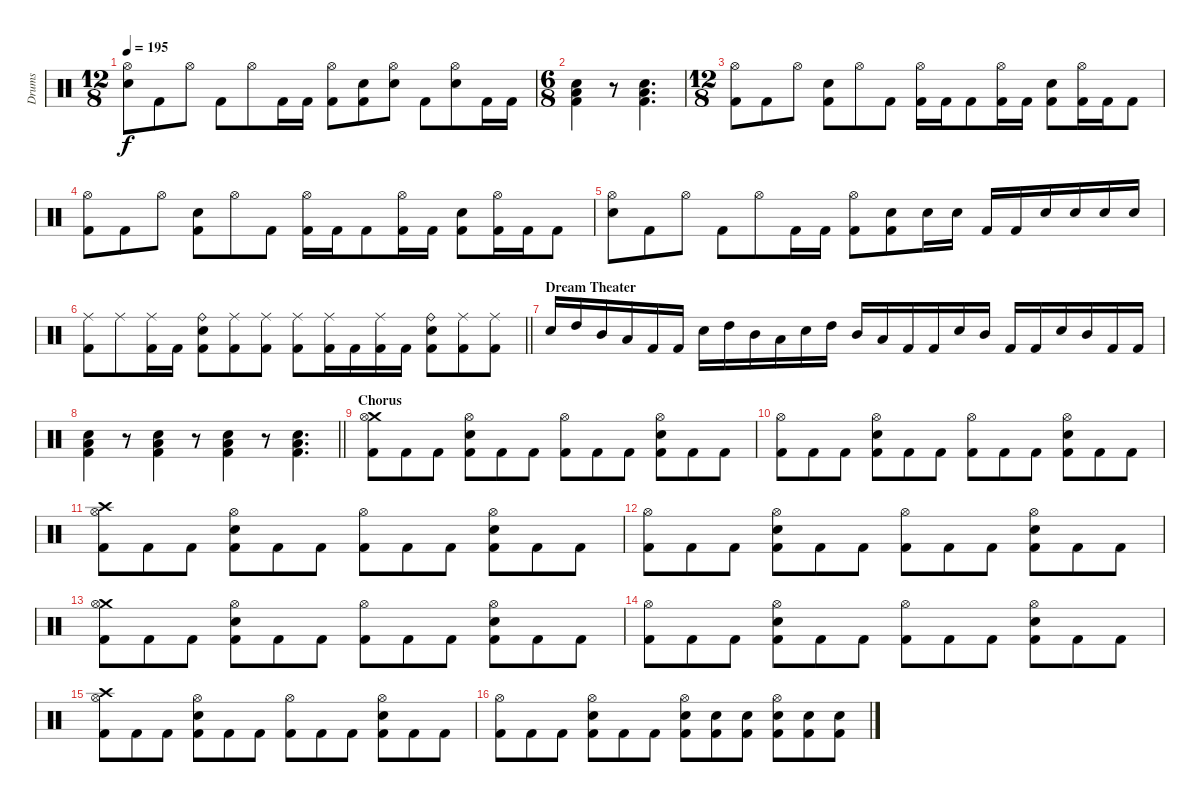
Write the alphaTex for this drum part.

\track ("Drums" "Drums") {instrument percussion}
\staff {score}
\articulation defaults
\ts (12 8)
\tempo 195
\clef neutral
\ks c
("Hi-Hat (open)" "Snare (hit) 2").8{dy f} "Kick (hit) 2".8 "Hi-Hat (open)".8 "Kick (hit) 2".8 "Hi-Hat (open)".8 "Kick (hit) 2".16 "Kick (hit) 2".16 ("Hi-Hat (open)" "Kick (hit) 2").8 ("Snare (hit) 2" "Kick (hit) 2").8 ("Hi-Hat (open)" "Snare (hit) 2").8 "Kick (hit) 2".8 ("Hi-Hat (open)" "Snare (hit) 2").8 "Kick (hit) 2".16 "Kick (hit) 2".16 |
\ts (6 8)
("Snare (hit) 2" "Low Floor Tom (hit)" "Kick (hit) 2").4 r.8 ("Snare (hit) 2" "Low Floor Tom (hit)" "Kick (hit) 2").4{d} |
\ts (12 8)
("Hi-Hat (open)" "Kick (hit) 2").8 "Kick (hit) 2".8 "Hi-Hat (open)".8 ("Snare (hit) 2" "Kick (hit) 2").8 "Hi-Hat (open)".8 "Kick (hit) 2".8 ("Hi-Hat (open)" "Kick (hit) 2").16 "Kick (hit) 2".16 "Kick (hit) 2".8 ("Hi-Hat (open)" "Kick (hit) 2").16 "Kick (hit) 2".16 ("Snare (hit) 2" "Kick (hit) 2").8 ("Hi-Hat (open)" "Kick (hit) 2").16 "Kick (hit) 2".16 "Kick (hit) 2".8 |
("Hi-Hat (open)" "Kick (hit) 2").8 "Kick (hit) 2".8 "Hi-Hat (open)".8 ("Snare (hit) 2" "Kick (hit) 2").8 "Hi-Hat (open)".8 "Kick (hit) 2".8 ("Hi-Hat (open)" "Kick (hit) 2").16 "Kick (hit) 2".16 "Kick (hit) 2".8 ("Hi-Hat (open)" "Kick (hit) 2").16 "Kick (hit) 2".16 ("Snare (hit) 2" "Kick (hit) 2").8 ("Hi-Hat (open)" "Kick (hit) 2").16 "Kick (hit) 2".16 "Kick (hit) 2".8 |
("Hi-Hat (open)" "Snare (hit) 2").8 "Kick (hit) 2".8 "Hi-Hat (open)".8 "Kick (hit) 2".8 "Hi-Hat (open)".8 "Kick (hit) 2".16 "Kick (hit) 2".16 ("Hi-Hat (open)" "Kick (hit) 2").8 ("Snare (hit) 2" "Kick (hit) 2").8 "Snare (hit) 2".16 "Snare (hit) 2".16 "Kick (hit) 2".16 "Kick (hit) 2".16 "Snare (hit) 2".16 "Snare (hit) 2".16 "Snare (hit) 2".16 "Snare (hit) 2".16 |
\barLineRight lightlight
("Ride (middle)" "Kick (hit) 2").8 "Ride (middle)".8 ("Ride (middle)" "Kick (hit) 2").16 "Kick (hit) 2".16 ("Ride (bell)" "Snare (hit) 2" "Kick (hit) 2").8 ("Ride (middle)" "Kick (hit) 2").8 ("Ride (middle)" "Kick (hit) 2").8 ("Ride (middle)" "Kick (hit) 2").8 ("Ride (middle)" "Kick (hit) 2").16 "Kick (hit) 2".16 ("Ride (middle)" "Kick (hit) 2").16 "Kick (hit) 2".16 ("Ride (bell)" "Snare (hit) 2" "Kick (hit) 2").8 ("Ride (middle)" "Kick (hit) 2").8 ("Ride (middle)" "Kick (hit) 2").8 |
\section ("" "Dream Theater")
"Snare (hit) 2".16 "High Tom (hit)".16 "Mid Tom (hit)".16 "Low Tom (hit)".16 "Kick (hit) 2".16 "Kick (hit) 2".16 "Snare (hit) 2".16 "High Tom (hit)".16 "Mid Tom (hit)".16 "Low Tom (hit)".16 "Snare (hit) 2".16 "High Tom (hit)".16 "Mid Tom (hit)".16 "Low Tom (hit)".16 "Kick (hit) 2".16 "Kick (hit) 2".16 "Snare (hit) 2".16 "Mid Tom (hit)".16 "Kick (hit) 2".16 "Kick (hit) 2".16 "Snare (hit) 2".16 "Mid Tom (hit)".16 "Kick (hit) 2".16 "Kick (hit) 2".16 |
\barLineRight lightlight
("Snare (hit) 2" "Low Floor Tom (hit)" "Kick (hit) 2").4 r.8 ("Snare (hit) 2" "Low Floor Tom (hit)" "Kick (hit) 2").4 r.8 ("Snare (hit) 2" "Low Floor Tom (hit)" "Kick (hit) 2").4 r.8 ("Snare (hit) 2" "Low Floor Tom (hit)" "Kick (hit) 2").4{d} |
\section ("" "Chorus")
("Crash medium (hit)" "Hi-Hat (open)" "Kick (hit) 2").8 "Kick (hit) 2".8 "Kick (hit) 2".8 ("Hi-Hat (open)" "Snare (hit) 2" "Kick (hit) 2").8 "Kick (hit) 2".8 "Kick (hit) 2".8 ("Hi-Hat (open)" "Kick (hit) 2").8 "Kick (hit) 2".8 "Kick (hit) 2".8 ("Hi-Hat (open)" "Snare (hit) 2" "Kick (hit) 2").8 "Kick (hit) 2".8 "Kick (hit) 2".8 |
("Hi-Hat (open)" "Kick (hit) 2").8 "Kick (hit) 2".8 "Kick (hit) 2".8 ("Hi-Hat (open)" "Snare (hit) 2" "Kick (hit) 2").8 "Kick (hit) 2".8 "Kick (hit) 2".8 ("Hi-Hat (open)" "Kick (hit) 2").8 "Kick (hit) 2".8 "Kick (hit) 2".8 ("Hi-Hat (open)" "Snare (hit) 2" "Kick (hit) 2").8 "Kick (hit) 2".8 "Kick (hit) 2".8 |
("Crash high (hit)" "Hi-Hat (open)" "Kick (hit) 2").8 "Kick (hit) 2".8 "Kick (hit) 2".8 ("Hi-Hat (open)" "Snare (hit) 2" "Kick (hit) 2").8 "Kick (hit) 2".8 "Kick (hit) 2".8 ("Hi-Hat (open)" "Kick (hit) 2").8 "Kick (hit) 2".8 "Kick (hit) 2".8 ("Hi-Hat (open)" "Snare (hit) 2" "Kick (hit) 2").8 "Kick (hit) 2".8 "Kick (hit) 2".8 |
("Hi-Hat (open)" "Kick (hit) 2").8 "Kick (hit) 2".8 "Kick (hit) 2".8 ("Hi-Hat (open)" "Snare (hit) 2" "Kick (hit) 2").8 "Kick (hit) 2".8 "Kick (hit) 2".8 ("Hi-Hat (open)" "Kick (hit) 2").8 "Kick (hit) 2".8 "Kick (hit) 2".8 ("Hi-Hat (open)" "Snare (hit) 2" "Kick (hit) 2").8 "Kick (hit) 2".8 "Kick (hit) 2".8 |
("Crash medium (hit)" "Hi-Hat (open)" "Kick (hit) 2").8 "Kick (hit) 2".8 "Kick (hit) 2".8 ("Hi-Hat (open)" "Snare (hit) 2" "Kick (hit) 2").8 "Kick (hit) 2".8 "Kick (hit) 2".8 ("Hi-Hat (open)" "Kick (hit) 2").8 "Kick (hit) 2".8 "Kick (hit) 2".8 ("Hi-Hat (open)" "Snare (hit) 2" "Kick (hit) 2").8 "Kick (hit) 2".8 "Kick (hit) 2".8 |
("Hi-Hat (open)" "Kick (hit) 2").8 "Kick (hit) 2".8 "Kick (hit) 2".8 ("Hi-Hat (open)" "Snare (hit) 2" "Kick (hit) 2").8 "Kick (hit) 2".8 "Kick (hit) 2".8 ("Hi-Hat (open)" "Kick (hit) 2").8 "Kick (hit) 2".8 "Kick (hit) 2".8 ("Hi-Hat (open)" "Snare (hit) 2" "Kick (hit) 2").8 "Kick (hit) 2".8 "Kick (hit) 2".8 |
("Crash high (hit)" "Hi-Hat (open)" "Kick (hit) 2").8 "Kick (hit) 2".8 "Kick (hit) 2".8 ("Hi-Hat (open)" "Snare (hit) 2" "Kick (hit) 2").8 "Kick (hit) 2".8 "Kick (hit) 2".8 ("Hi-Hat (open)" "Kick (hit) 2").8 "Kick (hit) 2".8 "Kick (hit) 2".8 ("Hi-Hat (open)" "Snare (hit) 2" "Kick (hit) 2").8 "Kick (hit) 2".8 "Kick (hit) 2".8 |
("Hi-Hat (open)" "Kick (hit) 2").8 "Kick (hit) 2".8 "Kick (hit) 2".8 ("Hi-Hat (open)" "Snare (hit) 2" "Kick (hit) 2").8 "Kick (hit) 2".8 "Kick (hit) 2".8 ("Hi-Hat (open)" "Snare (hit) 2" "Kick (hit) 2").8 ("Snare (hit) 2" "Kick (hit) 2").8 ("Snare (hit) 2" "Kick (hit) 2").8 ("Hi-Hat (open)" "Snare (hit) 2" "Kick (hit) 2").8 ("Snare (hit) 2" "Kick (hit) 2").8 ("Snare (hit) 2" "Kick (hit) 2").8
